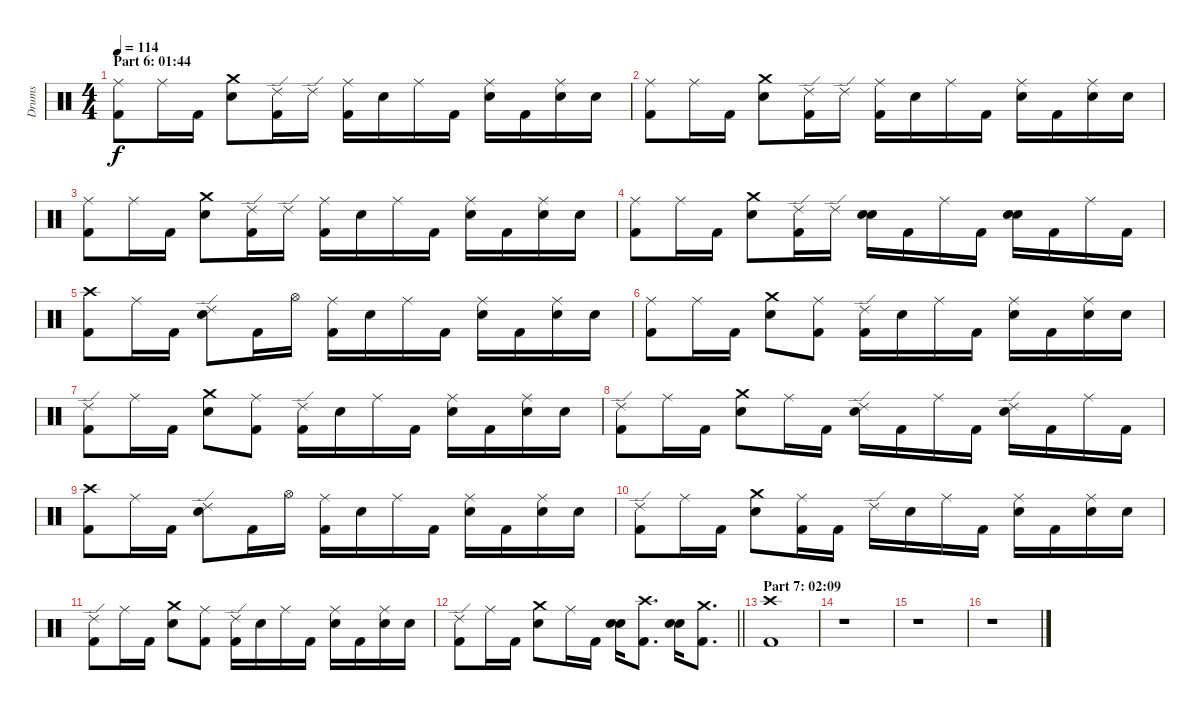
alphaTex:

\track ("Drums" "Drums") {instrument percussion}
\staff {score}
\articulation defaults
\ts (4 4)
\section ("" "Part 6: 01:44")
\tempo 114
\clef neutral
\ks c
("Ride (middle)" "Kick (hit) 2").8{dy f} "Ride (middle)".16 "Kick (hit) 2".16 ("Crash medium (hit)" "Electric Snare (hit)").8 ("Ride (edge) 2" "Kick (hit) 2").16 "Ride (edge) 2".16 ("Ride (middle)" "Kick (hit) 2").16 "Electric Snare (hit)".16 "Ride (middle)".16 "Kick (hit) 2".16 ("Ride (middle)" "Electric Snare (hit)").16 "Kick (hit) 2".16 ("Ride (middle)" "Electric Snare (hit)").16 "Electric Snare (hit)".16 |
("Ride (middle)" "Kick (hit) 2").8 "Ride (middle)".16 "Kick (hit) 2".16 ("Crash medium (hit)" "Electric Snare (hit)").8 ("Ride (edge) 2" "Kick (hit) 2").16 "Ride (edge) 2".16 ("Ride (middle)" "Kick (hit) 2").16 "Electric Snare (hit)".16 "Ride (middle)".16 "Kick (hit) 2".16 ("Ride (middle)" "Electric Snare (hit)").16 "Kick (hit) 2".16 ("Ride (middle)" "Electric Snare (hit)").16 "Electric Snare (hit)".16 |
("Ride (middle)" "Kick (hit) 2").8 "Ride (middle)".16 "Kick (hit) 2".16 ("Crash medium (hit)" "Electric Snare (hit)").8 ("Ride (edge) 2" "Kick (hit) 2").16 "Ride (edge) 2".16 ("Ride (middle)" "Kick (hit) 2").16 "Electric Snare (hit)".16 "Ride (middle)".16 "Kick (hit) 2".16 ("Ride (middle)" "Electric Snare (hit)").16 "Kick (hit) 2".16 ("Ride (middle)" "Electric Snare (hit)").16 "Electric Snare (hit)".16 |
("Ride (middle)" "Kick (hit) 2").8 "Ride (middle)".16 "Kick (hit) 2".16 ("Crash medium (hit)" "Electric Snare (hit)").8 ("Ride (edge) 2" "Kick (hit) 2").16 "Ride (edge) 2".16 ("Electric Snare (hit)" "Electric Snare (hit)").16{bd 120} "Kick (hit) 2".16 "Ride (middle)".16 "Kick (hit) 2".16 ("Electric Snare (hit)" "Electric Snare (hit)").16{bd 120} "Kick (hit) 2".16 "Ride (middle)".16 "Kick (hit) 2".16 |
("Crash high (hit)" "Kick (hit) 2").8 "Ride (middle)".16 "Kick (hit) 2".16 ("Ride (edge) 2" "Electric Snare (hit)").8 "Kick (hit) 2".16 "Hi-Hat (open)".16 ("Ride (middle)" "Kick (hit) 2").16 "Electric Snare (hit)".16 "Ride (middle)".16 "Kick (hit) 2".16 ("Ride (middle)" "Electric Snare (hit)").16 "Kick (hit) 2".16 ("Ride (middle)" "Electric Snare (hit)").16 "Electric Snare (hit)".16 |
("Ride (middle)" "Kick (hit) 2").8 "Ride (middle)".16 "Kick (hit) 2".16 ("Crash medium (hit)" "Electric Snare (hit)").8 ("Ride (middle)" "Kick (hit) 2").8 ("Ride (edge) 2" "Kick (hit) 2").16 "Electric Snare (hit)".16 "Ride (middle)".16 "Kick (hit) 2".16 ("Ride (middle)" "Electric Snare (hit)").16 "Kick (hit) 2".16 ("Ride (middle)" "Electric Snare (hit)").16 "Electric Snare (hit)".16 |
("Ride (edge) 2" "Kick (hit) 2").8 "Ride (middle)".16 "Kick (hit) 2".16 ("Crash medium (hit)" "Electric Snare (hit)").8 ("Ride (middle)" "Kick (hit) 2").8 ("Ride (edge) 2" "Kick (hit) 2").16 "Electric Snare (hit)".16 "Ride (middle)".16 "Kick (hit) 2".16 ("Ride (middle)" "Electric Snare (hit)").16 "Kick (hit) 2".16 ("Ride (middle)" "Electric Snare (hit)").16 "Electric Snare (hit)".16 |
("Ride (edge) 2" "Kick (hit) 2").8 "Ride (middle)".16 "Kick (hit) 2".16 ("Crash medium (hit)" "Electric Snare (hit)").8 "Ride (middle)".16 "Kick (hit) 2".16 ("Ride (edge) 2" "Electric Snare (hit)").16 "Kick (hit) 2".16 "Ride (middle)".16 "Kick (hit) 2".16 ("Ride (edge) 2" "Electric Snare (hit)").16 "Kick (hit) 2".16 "Ride (middle)".16 "Kick (hit) 2".16 |
("Crash high (hit)" "Kick (hit) 2").8 "Ride (middle)".16 "Kick (hit) 2".16 ("Ride (edge) 2" "Electric Snare (hit)").8 "Kick (hit) 2".16 "Hi-Hat (open)".16 ("Ride (middle)" "Kick (hit) 2").16 "Electric Snare (hit)".16 "Ride (middle)".16 "Kick (hit) 2".16 ("Ride (middle)" "Electric Snare (hit)").16 "Kick (hit) 2".16 ("Ride (middle)" "Electric Snare (hit)").16 "Electric Snare (hit)".16 |
("Ride (edge) 2" "Kick (hit) 2").8 "Ride (middle)".16 "Kick (hit) 2".16 ("Crash medium (hit)" "Electric Snare (hit)").8 ("Ride (middle)" "Kick (hit) 2").16 "Kick (hit) 2".16 "Ride (edge) 2".16 "Electric Snare (hit)".16 "Ride (middle)".16 "Kick (hit) 2".16 ("Ride (middle)" "Electric Snare (hit)").16 "Kick (hit) 2".16 ("Ride (middle)" "Electric Snare (hit)").16 "Electric Snare (hit)".16 |
("Ride (edge) 2" "Kick (hit) 2").8 "Ride (middle)".16 "Kick (hit) 2".16 ("Crash medium (hit)" "Electric Snare (hit)").8 ("Ride (middle)" "Kick (hit) 2").8 ("Ride (edge) 2" "Kick (hit) 2").16 "Electric Snare (hit)".16 "Ride (middle)".16 "Kick (hit) 2".16 ("Ride (middle)" "Electric Snare (hit)").16 "Kick (hit) 2".16 ("Ride (middle)" "Electric Snare (hit)").16 "Electric Snare (hit)".16 |
\barLineRight lightlight
("Ride (edge) 2" "Kick (hit) 2").8 "Ride (middle)".16 "Kick (hit) 2".16 ("Crash medium (hit)" "Electric Snare (hit)").8 "Ride (middle)".16 "Kick (hit) 2".16 ("Electric Snare (hit)" "Electric Snare (hit)").16{bd 120} ("Crash high (hit)" "Kick (hit) 2").8{d} ("Electric Snare (hit)" "Electric Snare (hit)").16{bd 120} ("Crash medium (hit)" "Kick (hit) 2").8{d} |
\section ("" "Part 7: 02:09")
("Crash high (hit)" "Kick (hit) 2").1 |
r.1 |
r.1 |
r.1
